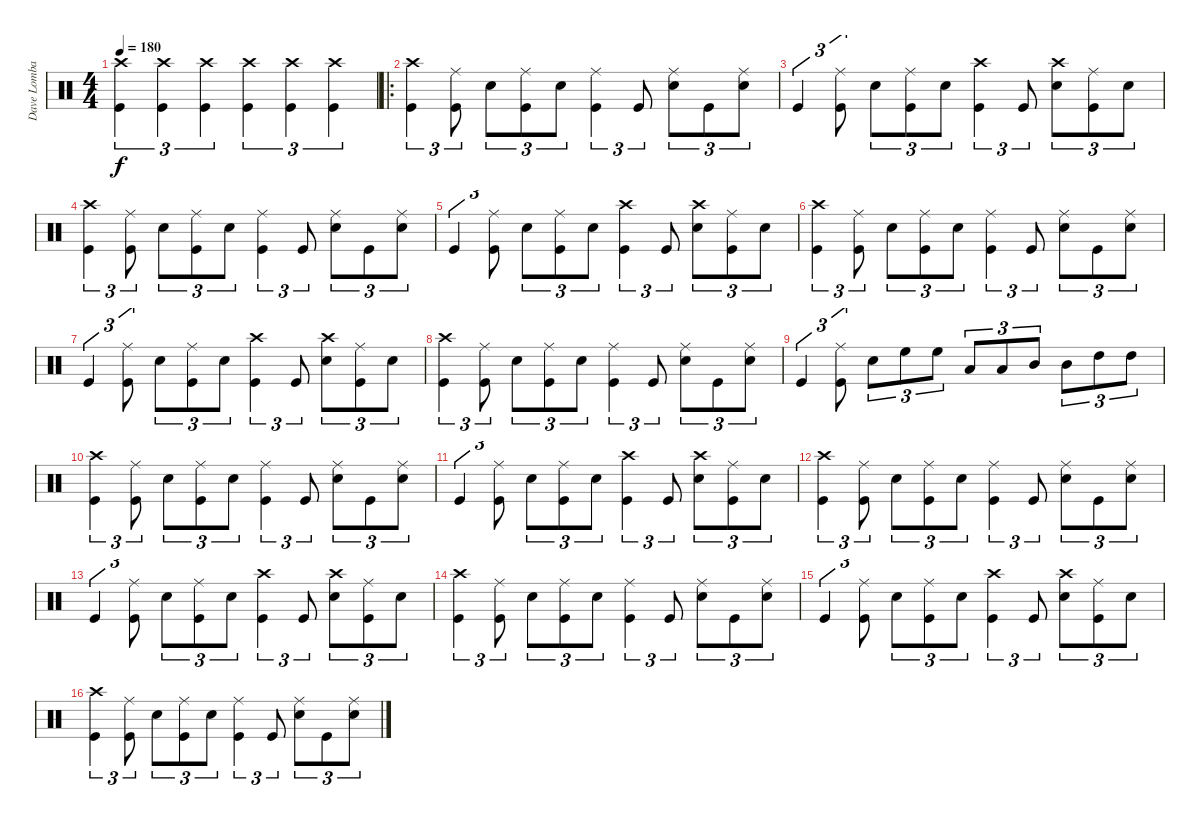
\track ("Dave Lombardo" "Dave Lomba") {instrument percussion}
\staff {score}
\articulation defaults
\ts (4 4)
\tempo 180
\clef neutral
\ks c
("Crash high (hit)" "Kick (hit)").4{tu (3 2) dy f} ("Crash high (hit)" "Kick (hit)").4{tu (3 2)} ("Crash high (hit)" "Kick (hit)").4{tu (3 2)} ("Crash high (hit)" "Kick (hit)").4{tu (3 2)} ("Crash high (hit)" "Kick (hit)").4{tu (3 2)} ("Crash high (hit)" "Kick (hit)").4{tu (3 2)} |
\ro
("Crash high (hit)" "Kick (hit)").4{tu (3 2)} ("Ride (middle)" "Kick (hit)").8{tu (3 2)} "Snare (hit) 2".8{tu (3 2)} ("Ride (middle)" "Kick (hit)").8{tu (3 2)} "Snare (hit) 2".8{tu (3 2)} ("Ride (middle)" "Kick (hit)").4{tu (3 2)} "Kick (hit)".8{tu (3 2)} ("Ride (middle)" "Snare (hit) 2").8{tu (3 2)} "Kick (hit)".8{tu (3 2)} ("Ride (middle)" "Snare (hit) 2").8{tu (3 2)} |
"Kick (hit)".4{tu (3 2)} ("Ride (middle)" "Kick (hit)").8{tu (3 2)} "Snare (hit) 2".8{tu (3 2)} ("Ride (middle)" "Kick (hit)").8{tu (3 2)} "Snare (hit) 2".8{tu (3 2)} ("Crash high (hit)" "Kick (hit)").4{tu (3 2)} "Kick (hit)".8{tu (3 2)} ("Crash high (hit)" "Snare (hit) 2").8{tu (3 2)} ("Ride (middle)" "Kick (hit)").8{tu (3 2)} "Snare (hit) 2".8{tu (3 2)} |
("Crash high (hit)" "Kick (hit)").4{tu (3 2)} ("Ride (middle)" "Kick (hit)").8{tu (3 2)} "Snare (hit) 2".8{tu (3 2)} ("Ride (middle)" "Kick (hit)").8{tu (3 2)} "Snare (hit) 2".8{tu (3 2)} ("Ride (middle)" "Kick (hit)").4{tu (3 2)} "Kick (hit)".8{tu (3 2)} ("Ride (middle)" "Snare (hit) 2").8{tu (3 2)} "Kick (hit)".8{tu (3 2)} ("Ride (middle)" "Snare (hit) 2").8{tu (3 2)} |
"Kick (hit)".4{tu (3 2)} ("Ride (middle)" "Kick (hit)").8{tu (3 2)} "Snare (hit) 2".8{tu (3 2)} ("Ride (middle)" "Kick (hit)").8{tu (3 2)} "Snare (hit) 2".8{tu (3 2)} ("Crash high (hit)" "Kick (hit)").4{tu (3 2)} "Kick (hit)".8{tu (3 2)} ("Crash high (hit)" "Snare (hit) 2").8{tu (3 2)} ("Ride (middle)" "Kick (hit)").8{tu (3 2)} "Snare (hit) 2".8{tu (3 2)} |
("Crash high (hit)" "Kick (hit)").4{tu (3 2)} ("Ride (middle)" "Kick (hit)").8{tu (3 2)} "Snare (hit) 2".8{tu (3 2)} ("Ride (middle)" "Kick (hit)").8{tu (3 2)} "Snare (hit) 2".8{tu (3 2)} ("Ride (middle)" "Kick (hit)").4{tu (3 2)} "Kick (hit)".8{tu (3 2)} ("Ride (middle)" "Snare (hit) 2").8{tu (3 2)} "Kick (hit)".8{tu (3 2)} ("Ride (middle)" "Snare (hit) 2").8{tu (3 2)} |
"Kick (hit)".4{tu (3 2)} ("Ride (middle)" "Kick (hit)").8{tu (3 2)} "Snare (hit) 2".8{tu (3 2)} ("Ride (middle)" "Kick (hit)").8{tu (3 2)} "Snare (hit) 2".8{tu (3 2)} ("Crash high (hit)" "Kick (hit)").4{tu (3 2)} "Kick (hit)".8{tu (3 2)} ("Crash high (hit)" "Snare (hit) 2").8{tu (3 2)} ("Ride (middle)" "Kick (hit)").8{tu (3 2)} "Snare (hit) 2".8{tu (3 2)} |
("Crash high (hit)" "Kick (hit)").4{tu (3 2)} ("Ride (middle)" "Kick (hit)").8{tu (3 2)} "Snare (hit) 2".8{tu (3 2)} ("Ride (middle)" "Kick (hit)").8{tu (3 2)} "Snare (hit) 2".8{tu (3 2)} ("Ride (middle)" "Kick (hit)").4{tu (3 2)} "Kick (hit)".8{tu (3 2)} ("Ride (middle)" "Snare (hit) 2").8{tu (3 2)} "Kick (hit)".8{tu (3 2)} ("Ride (middle)" "Snare (hit) 2").8{tu (3 2)} |
"Kick (hit)".4{tu (3 2)} ("Ride (middle)" "Kick (hit)").8{tu (3 2)} "Snare (hit) 2".8{tu (3 2)} "High Floor Tom (hit)".8{tu (3 2)} "High Floor Tom (hit)".8{tu (3 2)} "Low Tom (hit)".8{tu (3 2)} "Low Tom (hit)".8{tu (3 2)} "Mid Tom (hit)".8{tu (3 2)} "Mid Tom (hit)".8{tu (3 2)} "High Tom (hit)".8{tu (3 2)} "High Tom (hit)".8{tu (3 2)} |
("Crash high (hit)" "Kick (hit)").4{tu (3 2)} ("Ride (middle)" "Kick (hit)").8{tu (3 2)} "Snare (hit) 2".8{tu (3 2)} ("Ride (middle)" "Kick (hit)").8{tu (3 2)} "Snare (hit) 2".8{tu (3 2)} ("Ride (middle)" "Kick (hit)").4{tu (3 2)} "Kick (hit)".8{tu (3 2)} ("Ride (middle)" "Snare (hit) 2").8{tu (3 2)} "Kick (hit)".8{tu (3 2)} ("Ride (middle)" "Snare (hit) 2").8{tu (3 2)} |
"Kick (hit)".4{tu (3 2)} ("Ride (middle)" "Kick (hit)").8{tu (3 2)} "Snare (hit) 2".8{tu (3 2)} ("Ride (middle)" "Kick (hit)").8{tu (3 2)} "Snare (hit) 2".8{tu (3 2)} ("Crash high (hit)" "Kick (hit)").4{tu (3 2)} "Kick (hit)".8{tu (3 2)} ("Crash high (hit)" "Snare (hit) 2").8{tu (3 2)} ("Ride (middle)" "Kick (hit)").8{tu (3 2)} "Snare (hit) 2".8{tu (3 2)} |
("Crash high (hit)" "Kick (hit)").4{tu (3 2)} ("Ride (middle)" "Kick (hit)").8{tu (3 2)} "Snare (hit) 2".8{tu (3 2)} ("Ride (middle)" "Kick (hit)").8{tu (3 2)} "Snare (hit) 2".8{tu (3 2)} ("Ride (middle)" "Kick (hit)").4{tu (3 2)} "Kick (hit)".8{tu (3 2)} ("Ride (middle)" "Snare (hit) 2").8{tu (3 2)} "Kick (hit)".8{tu (3 2)} ("Ride (middle)" "Snare (hit) 2").8{tu (3 2)} |
"Kick (hit)".4{tu (3 2)} ("Ride (middle)" "Kick (hit)").8{tu (3 2)} "Snare (hit) 2".8{tu (3 2)} ("Ride (middle)" "Kick (hit)").8{tu (3 2)} "Snare (hit) 2".8{tu (3 2)} ("Crash high (hit)" "Kick (hit)").4{tu (3 2)} "Kick (hit)".8{tu (3 2)} ("Crash high (hit)" "Snare (hit) 2").8{tu (3 2)} ("Ride (middle)" "Kick (hit)").8{tu (3 2)} "Snare (hit) 2".8{tu (3 2)} |
("Crash high (hit)" "Kick (hit)").4{tu (3 2)} ("Ride (middle)" "Kick (hit)").8{tu (3 2)} "Snare (hit) 2".8{tu (3 2)} ("Ride (middle)" "Kick (hit)").8{tu (3 2)} "Snare (hit) 2".8{tu (3 2)} ("Ride (middle)" "Kick (hit)").4{tu (3 2)} "Kick (hit)".8{tu (3 2)} ("Ride (middle)" "Snare (hit) 2").8{tu (3 2)} "Kick (hit)".8{tu (3 2)} ("Ride (middle)" "Snare (hit) 2").8{tu (3 2)} |
"Kick (hit)".4{tu (3 2)} ("Ride (middle)" "Kick (hit)").8{tu (3 2)} "Snare (hit) 2".8{tu (3 2)} ("Ride (middle)" "Kick (hit)").8{tu (3 2)} "Snare (hit) 2".8{tu (3 2)} ("Crash high (hit)" "Kick (hit)").4{tu (3 2)} "Kick (hit)".8{tu (3 2)} ("Crash high (hit)" "Snare (hit) 2").8{tu (3 2)} ("Ride (middle)" "Kick (hit)").8{tu (3 2)} "Snare (hit) 2".8{tu (3 2)} |
("Crash high (hit)" "Kick (hit)").4{tu (3 2)} ("Ride (middle)" "Kick (hit)").8{tu (3 2)} "Snare (hit) 2".8{tu (3 2)} ("Ride (middle)" "Kick (hit)").8{tu (3 2)} "Snare (hit) 2".8{tu (3 2)} ("Ride (middle)" "Kick (hit)").4{tu (3 2)} "Kick (hit)".8{tu (3 2)} ("Ride (middle)" "Snare (hit) 2").8{tu (3 2)} "Kick (hit)".8{tu (3 2)} ("Ride (middle)" "Snare (hit) 2").8{tu (3 2)}
